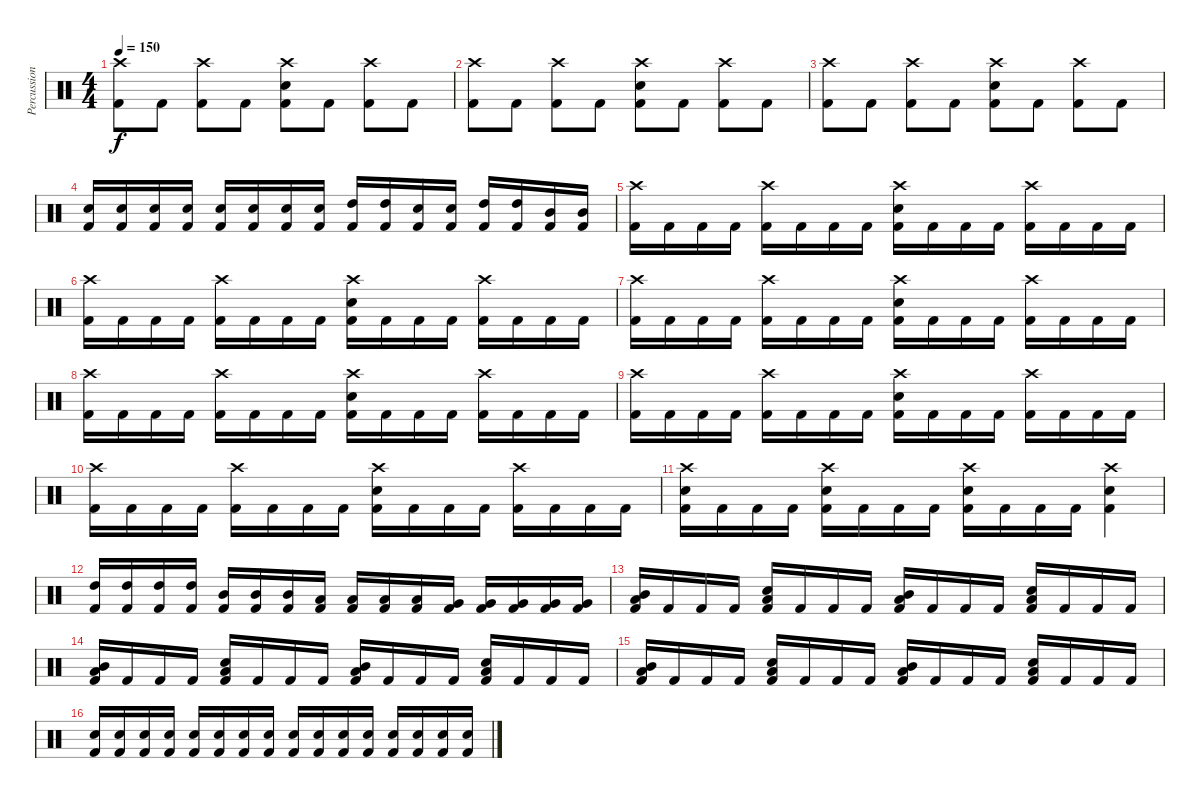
\track ("Percussion" "Percussion") {instrument percussion}
\staff {score}
\articulation defaults
\ts (4 4)
\tempo 150
\clef neutral
\ks c
("Crash high (hit)" "Kick (hit) 2").8{dy f} "Kick (hit) 2".8 ("Crash high (hit)" "Kick (hit) 2").8 "Kick (hit) 2".8 ("Crash high (hit)" "Snare (hit) 2" "Kick (hit) 2").8 "Kick (hit) 2".8 ("Crash high (hit)" "Kick (hit) 2").8 "Kick (hit) 2".8 |
("Crash high (hit)" "Kick (hit) 2").8 "Kick (hit) 2".8 ("Crash high (hit)" "Kick (hit) 2").8 "Kick (hit) 2".8 ("Crash high (hit)" "Snare (hit) 2" "Kick (hit) 2").8 "Kick (hit) 2".8 ("Crash high (hit)" "Kick (hit) 2").8 "Kick (hit) 2".8 |
("Crash high (hit)" "Kick (hit) 2").8 "Kick (hit) 2".8 ("Crash high (hit)" "Kick (hit) 2").8 "Kick (hit) 2".8 ("Crash high (hit)" "Snare (hit) 2" "Kick (hit) 2").8 "Kick (hit) 2".8 ("Crash high (hit)" "Kick (hit) 2").8 "Kick (hit) 2".8 |
("Snare (hit) 2" "Kick (hit) 2").16 ("Snare (hit) 2" "Kick (hit) 2").16 ("Snare (hit) 2" "Kick (hit) 2").16 ("Snare (hit) 2" "Kick (hit) 2").16 ("Snare (hit) 2" "Kick (hit) 2").16 ("Snare (hit) 2" "Kick (hit) 2").16 ("Snare (hit) 2" "Kick (hit) 2").16 ("Snare (hit) 2" "Kick (hit) 2").16 ("High Tom (hit)" "Kick (hit) 2").16 ("High Tom (hit)" "Kick (hit) 2").16 ("Snare (hit) 2" "Kick (hit) 2").16 ("Snare (hit) 2" "Kick (hit) 2").16 ("High Tom (hit)" "Kick (hit) 2").16 ("High Tom (hit)" "Kick (hit) 2").16 ("Mid Tom (hit)" "Kick (hit) 2").16 ("Mid Tom (hit)" "Kick (hit) 2").16 |
("Crash high (hit)" "Kick (hit) 2").16 "Kick (hit) 2".16 "Kick (hit) 2".16 "Kick (hit) 2".16 ("Crash high (hit)" "Kick (hit) 2").16 "Kick (hit) 2".16 "Kick (hit) 2".16 "Kick (hit) 2".16 ("Crash high (hit)" "Snare (hit) 2" "Kick (hit) 2").16 "Kick (hit) 2".16 "Kick (hit) 2".16 "Kick (hit) 2".16 ("Crash high (hit)" "Kick (hit) 2").16 "Kick (hit) 2".16 "Kick (hit) 2".16 "Kick (hit) 2".16 |
("Crash high (hit)" "Kick (hit) 2").16 "Kick (hit) 2".16 "Kick (hit) 2".16 "Kick (hit) 2".16 ("Crash high (hit)" "Kick (hit) 2").16 "Kick (hit) 2".16 "Kick (hit) 2".16 "Kick (hit) 2".16 ("Crash high (hit)" "Snare (hit) 2" "Kick (hit) 2").16 "Kick (hit) 2".16 "Kick (hit) 2".16 "Kick (hit) 2".16 ("Crash high (hit)" "Kick (hit) 2").16 "Kick (hit) 2".16 "Kick (hit) 2".16 "Kick (hit) 2".16 |
("Crash high (hit)" "Kick (hit) 2").16 "Kick (hit) 2".16 "Kick (hit) 2".16 "Kick (hit) 2".16 ("Crash high (hit)" "Kick (hit) 2").16 "Kick (hit) 2".16 "Kick (hit) 2".16 "Kick (hit) 2".16 ("Crash high (hit)" "Snare (hit) 2" "Kick (hit) 2").16 "Kick (hit) 2".16 "Kick (hit) 2".16 "Kick (hit) 2".16 ("Crash high (hit)" "Kick (hit) 2").16 "Kick (hit) 2".16 "Kick (hit) 2".16 "Kick (hit) 2".16 |
("Crash high (hit)" "Kick (hit) 2").16 "Kick (hit) 2".16 "Kick (hit) 2".16 "Kick (hit) 2".16 ("Crash high (hit)" "Kick (hit) 2").16 "Kick (hit) 2".16 "Kick (hit) 2".16 "Kick (hit) 2".16 ("Crash high (hit)" "Snare (hit) 2" "Kick (hit) 2").16 "Kick (hit) 2".16 "Kick (hit) 2".16 "Kick (hit) 2".16 ("Crash high (hit)" "Kick (hit) 2").16 "Kick (hit) 2".16 "Kick (hit) 2".16 "Kick (hit) 2".16 |
("Crash high (hit)" "Kick (hit) 2").16 "Kick (hit) 2".16 "Kick (hit) 2".16 "Kick (hit) 2".16 ("Crash high (hit)" "Kick (hit) 2").16 "Kick (hit) 2".16 "Kick (hit) 2".16 "Kick (hit) 2".16 ("Crash high (hit)" "Snare (hit) 2" "Kick (hit) 2").16 "Kick (hit) 2".16 "Kick (hit) 2".16 "Kick (hit) 2".16 ("Crash high (hit)" "Kick (hit) 2").16 "Kick (hit) 2".16 "Kick (hit) 2".16 "Kick (hit) 2".16 |
("Crash high (hit)" "Kick (hit) 2").16 "Kick (hit) 2".16 "Kick (hit) 2".16 "Kick (hit) 2".16 ("Crash high (hit)" "Kick (hit) 2").16 "Kick (hit) 2".16 "Kick (hit) 2".16 "Kick (hit) 2".16 ("Crash high (hit)" "Snare (hit) 2" "Kick (hit) 2").16 "Kick (hit) 2".16 "Kick (hit) 2".16 "Kick (hit) 2".16 ("Crash high (hit)" "Kick (hit) 2").16 "Kick (hit) 2".16 "Kick (hit) 2".16 "Kick (hit) 2".16 |
("Crash high (hit)" "Snare (hit) 2" "Kick (hit) 2").16 "Kick (hit) 2".16 "Kick (hit) 2".16 "Kick (hit) 2".16 ("Crash high (hit)" "Snare (hit) 2" "Kick (hit) 2").16 "Kick (hit) 2".16 "Kick (hit) 2".16 "Kick (hit) 2".16 ("Crash high (hit)" "Snare (hit) 2" "Kick (hit) 2").16 "Kick (hit) 2".16 "Kick (hit) 2".16 "Kick (hit) 2".16 ("Crash high (hit)" "Snare (hit) 2" "Kick (hit) 2").4 |
("High Tom (hit)" "Kick (hit) 2").16 ("High Tom (hit)" "Kick (hit) 2").16 ("High Tom (hit)" "Kick (hit) 2").16 ("High Tom (hit)" "Kick (hit) 2").16 ("Mid Tom (hit)" "Kick (hit) 2").16 ("Mid Tom (hit)" "Kick (hit) 2").16 ("Mid Tom (hit)" "Kick (hit) 2").16 ("Low Tom (hit)" "Kick (hit) 2").16 ("Low Tom (hit)" "Kick (hit) 2").16 ("Low Tom (hit)" "Kick (hit) 2").16 ("Low Tom (hit)" "Kick (hit) 2").16 ("Very Low Tom (hit)" "Kick (hit) 2").16 ("Very Low Tom (hit)" "Kick (hit) 2").16 ("Very Low Tom (hit)" "Kick (hit) 2").16 ("Very Low Tom (hit)" "Kick (hit) 2").16 ("Very Low Tom (hit)" "Kick (hit) 2").16 |
("Low Tom (hit)" "Mid Tom (hit)" "Kick (hit) 2").16 "Kick (hit) 2".16 "Kick (hit) 2".16 "Kick (hit) 2".16 ("Low Tom (hit)" "Snare (hit) 2" "Kick (hit) 2").16 "Kick (hit) 2".16 "Kick (hit) 2".16 "Kick (hit) 2".16 ("Mid Tom (hit)" "Low Tom (hit)" "Kick (hit) 2").16 "Kick (hit) 2".16 "Kick (hit) 2".16 "Kick (hit) 2".16 ("Low Tom (hit)" "Snare (hit) 2" "Kick (hit) 2").16 "Kick (hit) 2".16 "Kick (hit) 2".16 "Kick (hit) 2".16 |
("Mid Tom (hit)" "Low Tom (hit)" "Kick (hit) 2").16 "Kick (hit) 2".16 "Kick (hit) 2".16 "Kick (hit) 2".16 ("Low Tom (hit)" "Snare (hit) 2" "Kick (hit) 2").16 "Kick (hit) 2".16 "Kick (hit) 2".16 "Kick (hit) 2".16 ("Low Tom (hit)" "Mid Tom (hit)" "Kick (hit) 2").16 "Kick (hit) 2".16 "Kick (hit) 2".16 "Kick (hit) 2".16 ("Low Tom (hit)" "Snare (hit) 2" "Kick (hit) 2").16 "Kick (hit) 2".16 "Kick (hit) 2".16 "Kick (hit) 2".16 |
("Low Tom (hit)" "Mid Tom (hit)" "Kick (hit) 2").16 "Kick (hit) 2".16 "Kick (hit) 2".16 "Kick (hit) 2".16 ("Low Tom (hit)" "Snare (hit) 2" "Kick (hit) 2").16 "Kick (hit) 2".16 "Kick (hit) 2".16 "Kick (hit) 2".16 ("Low Tom (hit)" "Mid Tom (hit)" "Kick (hit) 2").16 "Kick (hit) 2".16 "Kick (hit) 2".16 "Kick (hit) 2".16 ("Low Tom (hit)" "Snare (hit) 2" "Kick (hit) 2").16 "Kick (hit) 2".16 "Kick (hit) 2".16 "Kick (hit) 2".16 |
("Snare (hit) 2" "Kick (hit) 2").16 ("Snare (hit) 2" "Kick (hit) 2").16 ("Snare (hit) 2" "Kick (hit) 2").16 ("Snare (hit) 2" "Kick (hit) 2").16 ("Snare (hit) 2" "Kick (hit) 2").16 ("Snare (hit) 2" "Kick (hit) 2").16 ("Snare (hit) 2" "Kick (hit) 2").16 ("Snare (hit) 2" "Kick (hit) 2").16 ("Snare (hit) 2" "Kick (hit) 2").16 ("Snare (hit) 2" "Kick (hit) 2").16 ("Snare (hit) 2" "Kick (hit) 2").16 ("Snare (hit) 2" "Kick (hit) 2").16 ("Snare (hit) 2" "Kick (hit) 2").16 ("Snare (hit) 2" "Kick (hit) 2").16 ("Snare (hit) 2" "Kick (hit) 2").16 ("Snare (hit) 2" "Kick (hit) 2").16
